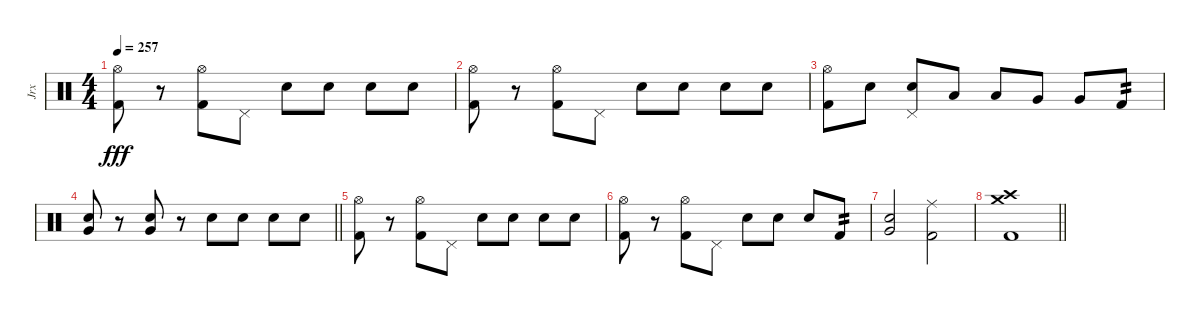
\track ("Jrx" "Jrx") {instrument percussion}
\staff {score}
\articulation defaults
\ts (4 4)
\tempo 257
\clef neutral
\ks c
("Hi-Hat (open)" "Kick (hit) 2").8{dy fff} r.8 ("Hi-Hat (open)" "Kick (hit) 2").8 "Pedal Hi-Hat (hit)".8 "Snare (hit) 2".8 "Snare (hit) 2".8 "Snare (hit) 2".8 "Snare (hit) 2".8 |
("Hi-Hat (open)" "Kick (hit) 2").8 r.8 ("Hi-Hat (open)" "Kick (hit) 2").8 "Pedal Hi-Hat (hit)".8 "Snare (hit) 2".8 "Snare (hit) 2".8 "Snare (hit) 2".8 "Snare (hit) 2".8 |
("Hi-Hat (open)" "Kick (hit) 2").8 "Snare (hit) 2".8 ("Pedal Hi-Hat (hit)" "Snare (hit) 2").8 "Low Tom (hit)".8 "Low Tom (hit)".8 "Very Low Tom (hit)".8 "Very Low Tom (hit)".8 "Kick (hit) 2".8{tp 2} |
\barLineRight lightlight
("Snare (hit) 2" "Very Low Tom (hit)").8 r.8 ("Snare (hit) 2" "Very Low Tom (hit)").8 r.8 "Snare (hit) 2".8 "Snare (hit) 2".8 "Snare (hit) 2".8 "Snare (hit) 2".8 |
("Hi-Hat (open)" "Kick (hit) 2").8 r.8 ("Hi-Hat (open)" "Kick (hit) 2").8 "Pedal Hi-Hat (hit)".8 "Snare (hit) 2".8 "Snare (hit) 2".8 "Snare (hit) 2".8 "Snare (hit) 2".8 |
("Hi-Hat (open)" "Kick (hit) 2").8 r.8 ("Hi-Hat (open)" "Kick (hit) 2").8 "Pedal Hi-Hat (hit)".8 "Snare (hit) 2".8 "Snare (hit) 2".8 "Snare (hit) 2".8 "Kick (hit) 2".8{tp 2} |
("Snare (hit) 2" "Very Low Tom (hit)").2 ("Kick (hit) 2" "Ride (middle)").2 |
\barLineRight lightlight
("Kick (hit) 2" "Crash high (hit)" "Crash medium (hit)").1
